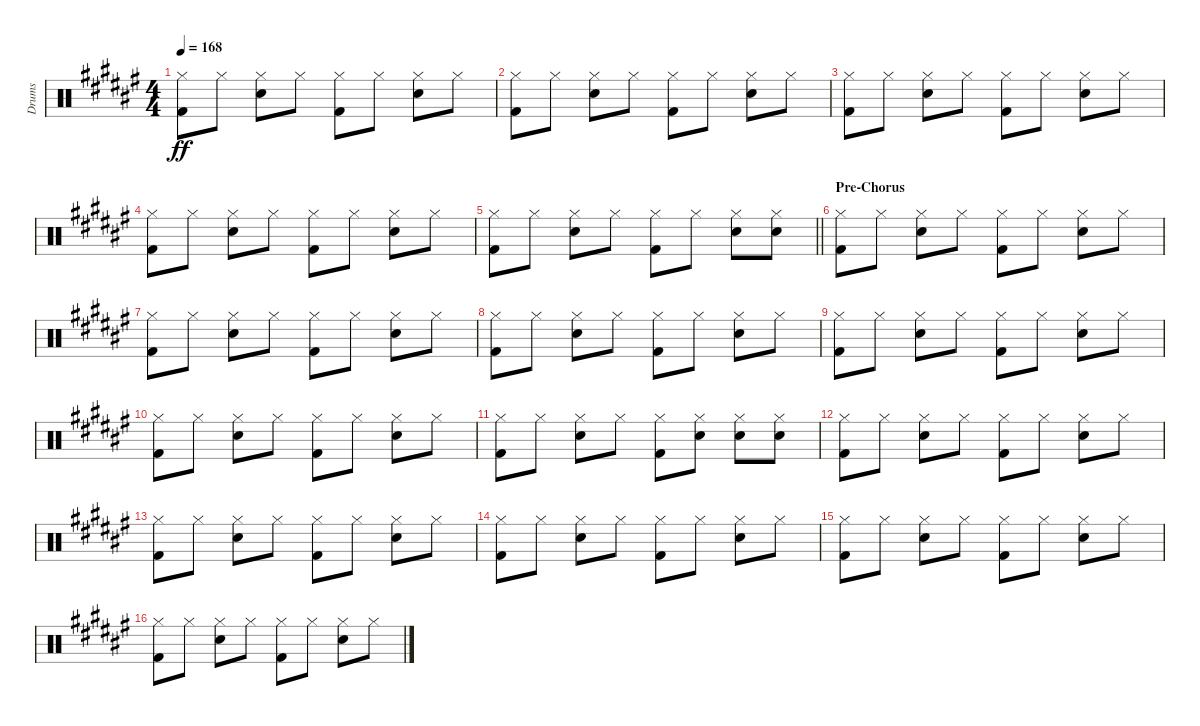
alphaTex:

\track ("Drums" "Drums") {instrument percussion}
\staff {score}
\articulation defaults
\ts (4 4)
\tempo 168
\clef neutral
\ks f#
("Hi-Hat (closed)" "Kick (hit) 2").8{dy ff} "Hi-Hat (closed)".8 ("Hi-Hat (closed)" "Electric Snare (hit)").8 "Hi-Hat (closed)".8 ("Hi-Hat (closed)" "Kick (hit) 2").8 "Hi-Hat (closed)".8 ("Hi-Hat (closed)" "Electric Snare (hit)").8 "Hi-Hat (closed)".8 |
("Hi-Hat (closed)" "Kick (hit) 2").8 "Hi-Hat (closed)".8 ("Hi-Hat (closed)" "Electric Snare (hit)").8 "Hi-Hat (closed)".8 ("Hi-Hat (closed)" "Kick (hit) 2").8 "Hi-Hat (closed)".8 ("Hi-Hat (closed)" "Electric Snare (hit)").8 "Hi-Hat (closed)".8 |
("Hi-Hat (closed)" "Kick (hit) 2").8 "Hi-Hat (closed)".8 ("Hi-Hat (closed)" "Electric Snare (hit)").8 "Hi-Hat (closed)".8 ("Hi-Hat (closed)" "Kick (hit) 2").8 "Hi-Hat (closed)".8 ("Hi-Hat (closed)" "Electric Snare (hit)").8 "Hi-Hat (closed)".8 |
("Hi-Hat (closed)" "Kick (hit) 2").8 "Hi-Hat (closed)".8 ("Hi-Hat (closed)" "Electric Snare (hit)").8 "Hi-Hat (closed)".8 ("Hi-Hat (closed)" "Kick (hit) 2").8 "Hi-Hat (closed)".8 ("Hi-Hat (closed)" "Electric Snare (hit)").8 "Hi-Hat (closed)".8 |
\barLineRight lightlight
("Hi-Hat (closed)" "Kick (hit) 2").8 "Hi-Hat (closed)".8 ("Hi-Hat (closed)" "Electric Snare (hit)").8 "Hi-Hat (closed)".8 ("Hi-Hat (closed)" "Kick (hit) 2").8 "Hi-Hat (closed)".8 ("Hi-Hat (closed)" "Electric Snare (hit)").8 ("Hi-Hat (closed)" "Electric Snare (hit)").8 |
\section ("" "Pre-Chorus")
("Hi-Hat (closed)" "Kick (hit) 2").8 "Hi-Hat (closed)".8 ("Hi-Hat (closed)" "Electric Snare (hit)").8 "Hi-Hat (closed)".8 ("Hi-Hat (closed)" "Kick (hit) 2").8 "Hi-Hat (closed)".8 ("Hi-Hat (closed)" "Electric Snare (hit)").8 "Hi-Hat (closed)".8 |
("Hi-Hat (closed)" "Kick (hit) 2").8 "Hi-Hat (closed)".8 ("Hi-Hat (closed)" "Electric Snare (hit)").8 "Hi-Hat (closed)".8 ("Hi-Hat (closed)" "Kick (hit) 2").8 "Hi-Hat (closed)".8 ("Hi-Hat (closed)" "Electric Snare (hit)").8 "Hi-Hat (closed)".8 |
("Hi-Hat (closed)" "Kick (hit) 2").8 "Hi-Hat (closed)".8 ("Hi-Hat (closed)" "Electric Snare (hit)").8 "Hi-Hat (closed)".8 ("Hi-Hat (closed)" "Kick (hit) 2").8 "Hi-Hat (closed)".8 ("Hi-Hat (closed)" "Electric Snare (hit)").8 "Hi-Hat (closed)".8 |
("Hi-Hat (closed)" "Kick (hit) 2").8 "Hi-Hat (closed)".8 ("Hi-Hat (closed)" "Electric Snare (hit)").8 "Hi-Hat (closed)".8 ("Hi-Hat (closed)" "Kick (hit) 2").8 "Hi-Hat (closed)".8 ("Hi-Hat (closed)" "Electric Snare (hit)").8 "Hi-Hat (closed)".8 |
("Hi-Hat (closed)" "Kick (hit) 2").8 "Hi-Hat (closed)".8 ("Hi-Hat (closed)" "Electric Snare (hit)").8 "Hi-Hat (closed)".8 ("Hi-Hat (closed)" "Kick (hit) 2").8 "Hi-Hat (closed)".8 ("Hi-Hat (closed)" "Electric Snare (hit)").8 "Hi-Hat (closed)".8 |
("Hi-Hat (closed)" "Kick (hit) 2").8 "Hi-Hat (closed)".8 ("Hi-Hat (closed)" "Electric Snare (hit)").8 "Hi-Hat (closed)".8 ("Hi-Hat (closed)" "Kick (hit) 2").8 ("Hi-Hat (closed)" "Electric Snare (hit)").8 ("Hi-Hat (closed)" "Electric Snare (hit)").8 ("Hi-Hat (closed)" "Electric Snare (hit)").8 |
("Hi-Hat (closed)" "Kick (hit) 2").8 "Hi-Hat (closed)".8 ("Hi-Hat (closed)" "Electric Snare (hit)").8 "Hi-Hat (closed)".8 ("Hi-Hat (closed)" "Kick (hit) 2").8 "Hi-Hat (closed)".8 ("Hi-Hat (closed)" "Electric Snare (hit)").8 "Hi-Hat (closed)".8 |
("Hi-Hat (closed)" "Kick (hit) 2").8 "Hi-Hat (closed)".8 ("Hi-Hat (closed)" "Electric Snare (hit)").8 "Hi-Hat (closed)".8 ("Hi-Hat (closed)" "Kick (hit) 2").8 "Hi-Hat (closed)".8 ("Hi-Hat (closed)" "Electric Snare (hit)").8 "Hi-Hat (closed)".8 |
("Hi-Hat (closed)" "Kick (hit) 2").8 "Hi-Hat (closed)".8 ("Hi-Hat (closed)" "Electric Snare (hit)").8 "Hi-Hat (closed)".8 ("Hi-Hat (closed)" "Kick (hit) 2").8 "Hi-Hat (closed)".8 ("Hi-Hat (closed)" "Electric Snare (hit)").8 "Hi-Hat (closed)".8 |
("Hi-Hat (closed)" "Kick (hit) 2").8 "Hi-Hat (closed)".8 ("Hi-Hat (closed)" "Electric Snare (hit)").8 "Hi-Hat (closed)".8 ("Hi-Hat (closed)" "Kick (hit) 2").8 "Hi-Hat (closed)".8 ("Hi-Hat (closed)" "Electric Snare (hit)").8 "Hi-Hat (closed)".8 |
("Hi-Hat (closed)" "Kick (hit) 2").8 "Hi-Hat (closed)".8 ("Hi-Hat (closed)" "Electric Snare (hit)").8 "Hi-Hat (closed)".8 ("Hi-Hat (closed)" "Kick (hit) 2").8 "Hi-Hat (closed)".8 ("Hi-Hat (closed)" "Electric Snare (hit)").8 "Hi-Hat (closed)".8
